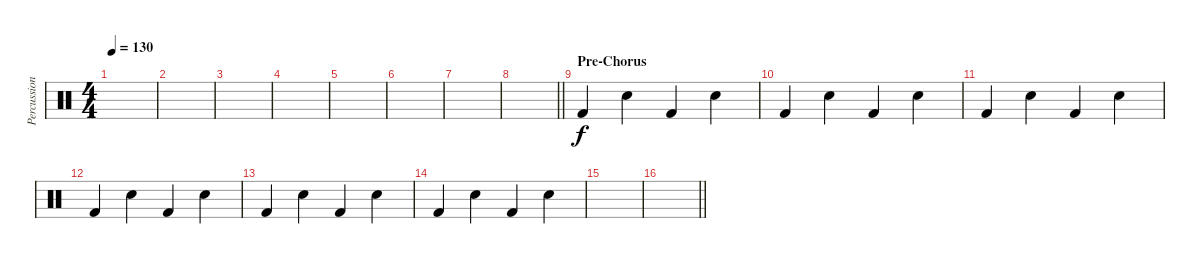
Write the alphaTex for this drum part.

\track ("Percussion 2" "Percussion") {instrument percussion}
\staff {score}
\articulation defaults
\ts (4 4)
\tempo 130
\clef neutral
\ks c
|
|
|
|
|
|
|
\barLineRight lightlight
|
\section ("" "Pre-Chorus")
"Kick (hit) 2".4 "Electric Snare (hit)".4 "Kick (hit) 2".4 "Electric Snare (hit)".4 |
"Kick (hit) 2".4 "Electric Snare (hit)".4 "Kick (hit) 2".4 "Electric Snare (hit)".4 |
"Kick (hit) 2".4 "Electric Snare (hit)".4 "Kick (hit) 2".4 "Electric Snare (hit)".4 |
"Kick (hit) 2".4 "Electric Snare (hit)".4 "Kick (hit) 2".4 "Electric Snare (hit)".4 |
"Kick (hit) 2".4 "Electric Snare (hit)".4 "Kick (hit) 2".4 "Electric Snare (hit)".4 |
"Kick (hit) 2".4 "Electric Snare (hit)".4 "Kick (hit) 2".4 "Electric Snare (hit)".4 |
|
\barLineRight lightlight
